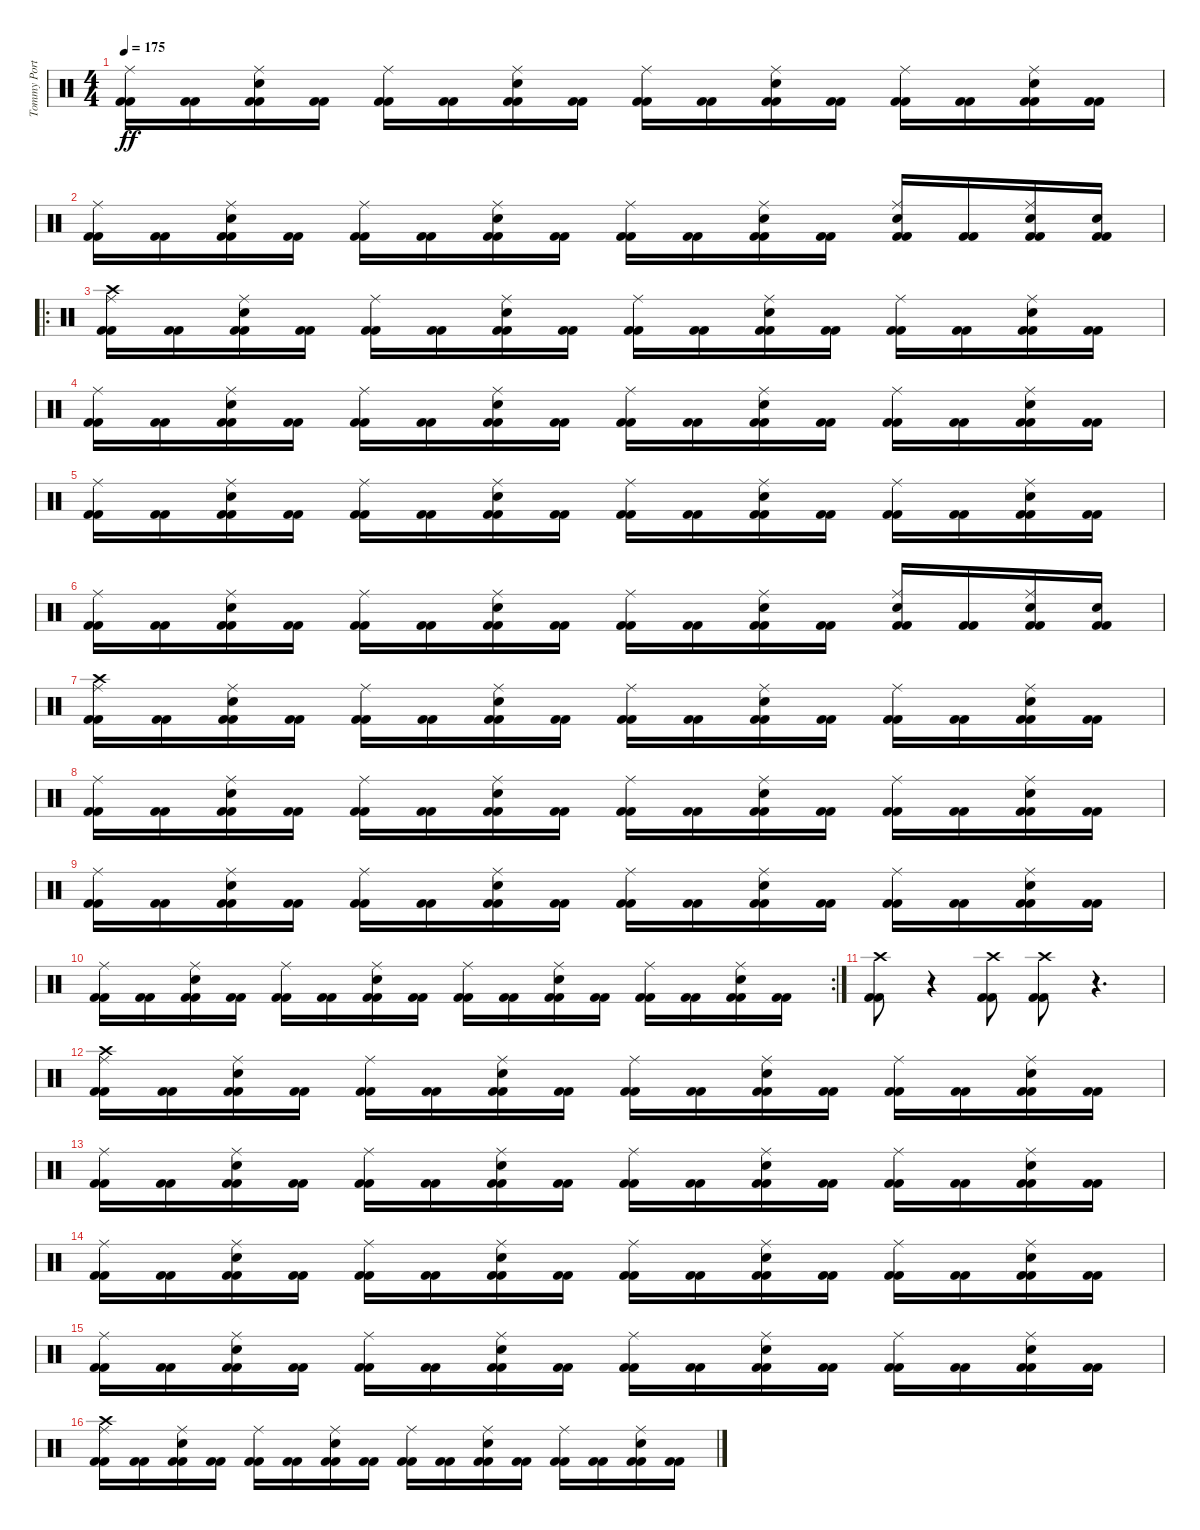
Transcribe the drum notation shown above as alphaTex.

\track ("Tommy Portimo" "Tommy Port") {instrument percussion}
\staff {score}
\articulation defaults
\ts (4 4)
\tempo 175
\clef neutral
\ks c
("Kick (hit) 2" "Kick (hit) 2" "Ride (middle)").16{dy ff} ("Kick (hit) 2" "Kick (hit) 2").16 ("Kick (hit) 2" "Kick (hit) 2" "Ride (middle)" "Electric Snare (hit)").16 ("Kick (hit) 2" "Kick (hit) 2").16 ("Kick (hit) 2" "Kick (hit) 2" "Ride (middle)").16 ("Kick (hit) 2" "Kick (hit) 2").16 ("Kick (hit) 2" "Kick (hit) 2" "Ride (middle)" "Electric Snare (hit)").16 ("Kick (hit) 2" "Kick (hit) 2").16 ("Kick (hit) 2" "Kick (hit) 2" "Ride (middle)").16 ("Kick (hit) 2" "Kick (hit) 2").16 ("Kick (hit) 2" "Kick (hit) 2" "Ride (middle)" "Electric Snare (hit)").16 ("Kick (hit) 2" "Kick (hit) 2").16 ("Kick (hit) 2" "Kick (hit) 2" "Ride (middle)").16 ("Kick (hit) 2" "Kick (hit) 2").16 ("Kick (hit) 2" "Kick (hit) 2" "Ride (middle)" "Electric Snare (hit)").16 ("Kick (hit) 2" "Kick (hit) 2").16 |
("Kick (hit) 2" "Kick (hit) 2" "Ride (middle)").16 ("Kick (hit) 2" "Kick (hit) 2").16 ("Kick (hit) 2" "Kick (hit) 2" "Ride (middle)" "Electric Snare (hit)").16 ("Kick (hit) 2" "Kick (hit) 2").16 ("Kick (hit) 2" "Kick (hit) 2" "Ride (middle)").16 ("Kick (hit) 2" "Kick (hit) 2").16 ("Kick (hit) 2" "Kick (hit) 2" "Ride (middle)" "Electric Snare (hit)").16 ("Kick (hit) 2" "Kick (hit) 2").16 ("Kick (hit) 2" "Kick (hit) 2" "Ride (middle)").16 ("Kick (hit) 2" "Kick (hit) 2").16 ("Kick (hit) 2" "Kick (hit) 2" "Ride (middle)" "Electric Snare (hit)").16 ("Kick (hit) 2" "Kick (hit) 2").16 ("Kick (hit) 2" "Kick (hit) 2" "Ride (middle)" "Electric Snare (hit)").16 ("Kick (hit) 2" "Kick (hit) 2").16 ("Kick (hit) 2" "Kick (hit) 2" "Ride (middle)" "Electric Snare (hit)").16 ("Kick (hit) 2" "Kick (hit) 2" "Electric Snare (hit)").16 |
\ro
("Kick (hit) 2" "Kick (hit) 2" "Ride (middle)" "Crash high (hit)").16 ("Kick (hit) 2" "Kick (hit) 2").16 ("Kick (hit) 2" "Kick (hit) 2" "Ride (middle)" "Electric Snare (hit)").16 ("Kick (hit) 2" "Kick (hit) 2").16 ("Kick (hit) 2" "Kick (hit) 2" "Ride (middle)").16 ("Kick (hit) 2" "Kick (hit) 2").16 ("Kick (hit) 2" "Kick (hit) 2" "Ride (middle)" "Electric Snare (hit)").16 ("Kick (hit) 2" "Kick (hit) 2").16 ("Kick (hit) 2" "Kick (hit) 2" "Ride (middle)").16 ("Kick (hit) 2" "Kick (hit) 2").16 ("Kick (hit) 2" "Kick (hit) 2" "Ride (middle)" "Electric Snare (hit)").16 ("Kick (hit) 2" "Kick (hit) 2").16 ("Kick (hit) 2" "Kick (hit) 2" "Ride (middle)").16 ("Kick (hit) 2" "Kick (hit) 2").16 ("Kick (hit) 2" "Kick (hit) 2" "Ride (middle)" "Electric Snare (hit)").16 ("Kick (hit) 2" "Kick (hit) 2").16 |
("Kick (hit) 2" "Kick (hit) 2" "Ride (middle)").16 ("Kick (hit) 2" "Kick (hit) 2").16 ("Kick (hit) 2" "Kick (hit) 2" "Ride (middle)" "Electric Snare (hit)").16 ("Kick (hit) 2" "Kick (hit) 2").16 ("Kick (hit) 2" "Kick (hit) 2" "Ride (middle)").16 ("Kick (hit) 2" "Kick (hit) 2").16 ("Kick (hit) 2" "Kick (hit) 2" "Ride (middle)" "Electric Snare (hit)").16 ("Kick (hit) 2" "Kick (hit) 2").16 ("Kick (hit) 2" "Kick (hit) 2" "Ride (middle)").16 ("Kick (hit) 2" "Kick (hit) 2").16 ("Kick (hit) 2" "Kick (hit) 2" "Ride (middle)" "Electric Snare (hit)").16 ("Kick (hit) 2" "Kick (hit) 2").16 ("Kick (hit) 2" "Kick (hit) 2" "Ride (middle)").16 ("Kick (hit) 2" "Kick (hit) 2").16 ("Kick (hit) 2" "Kick (hit) 2" "Ride (middle)" "Electric Snare (hit)").16 ("Kick (hit) 2" "Kick (hit) 2").16 |
("Kick (hit) 2" "Kick (hit) 2" "Ride (middle)").16 ("Kick (hit) 2" "Kick (hit) 2").16 ("Kick (hit) 2" "Kick (hit) 2" "Ride (middle)" "Electric Snare (hit)").16 ("Kick (hit) 2" "Kick (hit) 2").16 ("Kick (hit) 2" "Kick (hit) 2" "Ride (middle)").16 ("Kick (hit) 2" "Kick (hit) 2").16 ("Kick (hit) 2" "Kick (hit) 2" "Ride (middle)" "Electric Snare (hit)").16 ("Kick (hit) 2" "Kick (hit) 2").16 ("Kick (hit) 2" "Kick (hit) 2" "Ride (middle)").16 ("Kick (hit) 2" "Kick (hit) 2").16 ("Kick (hit) 2" "Kick (hit) 2" "Ride (middle)" "Electric Snare (hit)").16 ("Kick (hit) 2" "Kick (hit) 2").16 ("Kick (hit) 2" "Kick (hit) 2" "Ride (middle)").16 ("Kick (hit) 2" "Kick (hit) 2").16 ("Kick (hit) 2" "Kick (hit) 2" "Ride (middle)" "Electric Snare (hit)").16 ("Kick (hit) 2" "Kick (hit) 2").16 |
("Kick (hit) 2" "Kick (hit) 2" "Ride (middle)").16 ("Kick (hit) 2" "Kick (hit) 2").16 ("Kick (hit) 2" "Kick (hit) 2" "Ride (middle)" "Electric Snare (hit)").16 ("Kick (hit) 2" "Kick (hit) 2").16 ("Kick (hit) 2" "Kick (hit) 2" "Ride (middle)").16 ("Kick (hit) 2" "Kick (hit) 2").16 ("Kick (hit) 2" "Kick (hit) 2" "Ride (middle)" "Electric Snare (hit)").16 ("Kick (hit) 2" "Kick (hit) 2").16 ("Kick (hit) 2" "Kick (hit) 2" "Ride (middle)").16 ("Kick (hit) 2" "Kick (hit) 2").16 ("Kick (hit) 2" "Kick (hit) 2" "Ride (middle)" "Electric Snare (hit)").16 ("Kick (hit) 2" "Kick (hit) 2").16 ("Kick (hit) 2" "Kick (hit) 2" "Ride (middle)" "Electric Snare (hit)").16 ("Kick (hit) 2" "Kick (hit) 2").16 ("Kick (hit) 2" "Kick (hit) 2" "Ride (middle)" "Electric Snare (hit)").16 ("Kick (hit) 2" "Kick (hit) 2" "Electric Snare (hit)").16 |
("Kick (hit) 2" "Kick (hit) 2" "Ride (middle)" "Crash high (hit)").16 ("Kick (hit) 2" "Kick (hit) 2").16 ("Kick (hit) 2" "Kick (hit) 2" "Ride (middle)" "Electric Snare (hit)").16 ("Kick (hit) 2" "Kick (hit) 2").16 ("Kick (hit) 2" "Kick (hit) 2" "Ride (middle)").16 ("Kick (hit) 2" "Kick (hit) 2").16 ("Kick (hit) 2" "Kick (hit) 2" "Ride (middle)" "Electric Snare (hit)").16 ("Kick (hit) 2" "Kick (hit) 2").16 ("Kick (hit) 2" "Kick (hit) 2" "Ride (middle)").16 ("Kick (hit) 2" "Kick (hit) 2").16 ("Kick (hit) 2" "Kick (hit) 2" "Ride (middle)" "Electric Snare (hit)").16 ("Kick (hit) 2" "Kick (hit) 2").16 ("Kick (hit) 2" "Kick (hit) 2" "Ride (middle)").16 ("Kick (hit) 2" "Kick (hit) 2").16 ("Kick (hit) 2" "Kick (hit) 2" "Ride (middle)" "Electric Snare (hit)").16 ("Kick (hit) 2" "Kick (hit) 2").16 |
("Kick (hit) 2" "Kick (hit) 2" "Ride (middle)").16 ("Kick (hit) 2" "Kick (hit) 2").16 ("Kick (hit) 2" "Kick (hit) 2" "Ride (middle)" "Electric Snare (hit)").16 ("Kick (hit) 2" "Kick (hit) 2").16 ("Kick (hit) 2" "Kick (hit) 2" "Ride (middle)").16 ("Kick (hit) 2" "Kick (hit) 2").16 ("Kick (hit) 2" "Kick (hit) 2" "Ride (middle)" "Electric Snare (hit)").16 ("Kick (hit) 2" "Kick (hit) 2").16 ("Kick (hit) 2" "Kick (hit) 2" "Ride (middle)").16 ("Kick (hit) 2" "Kick (hit) 2").16 ("Kick (hit) 2" "Kick (hit) 2" "Ride (middle)" "Electric Snare (hit)").16 ("Kick (hit) 2" "Kick (hit) 2").16 ("Kick (hit) 2" "Kick (hit) 2" "Ride (middle)").16 ("Kick (hit) 2" "Kick (hit) 2").16 ("Kick (hit) 2" "Kick (hit) 2" "Ride (middle)" "Electric Snare (hit)").16 ("Kick (hit) 2" "Kick (hit) 2").16 |
("Kick (hit) 2" "Kick (hit) 2" "Ride (middle)").16 ("Kick (hit) 2" "Kick (hit) 2").16 ("Kick (hit) 2" "Kick (hit) 2" "Ride (middle)" "Electric Snare (hit)").16 ("Kick (hit) 2" "Kick (hit) 2").16 ("Kick (hit) 2" "Kick (hit) 2" "Ride (middle)").16 ("Kick (hit) 2" "Kick (hit) 2").16 ("Kick (hit) 2" "Kick (hit) 2" "Ride (middle)" "Electric Snare (hit)").16 ("Kick (hit) 2" "Kick (hit) 2").16 ("Kick (hit) 2" "Kick (hit) 2" "Ride (middle)").16 ("Kick (hit) 2" "Kick (hit) 2").16 ("Kick (hit) 2" "Kick (hit) 2" "Ride (middle)" "Electric Snare (hit)").16 ("Kick (hit) 2" "Kick (hit) 2").16 ("Kick (hit) 2" "Kick (hit) 2" "Ride (middle)").16 ("Kick (hit) 2" "Kick (hit) 2").16 ("Kick (hit) 2" "Kick (hit) 2" "Ride (middle)" "Electric Snare (hit)").16 ("Kick (hit) 2" "Kick (hit) 2").16 |
\rc 2
("Kick (hit) 2" "Kick (hit) 2" "Ride (middle)").16 ("Kick (hit) 2" "Kick (hit) 2").16 ("Kick (hit) 2" "Kick (hit) 2" "Ride (middle)" "Electric Snare (hit)").16 ("Kick (hit) 2" "Kick (hit) 2").16 ("Kick (hit) 2" "Kick (hit) 2" "Ride (middle)").16 ("Kick (hit) 2" "Kick (hit) 2").16 ("Kick (hit) 2" "Kick (hit) 2" "Ride (middle)" "Electric Snare (hit)").16 ("Kick (hit) 2" "Kick (hit) 2").16 ("Kick (hit) 2" "Kick (hit) 2" "Ride (middle)").16 ("Kick (hit) 2" "Kick (hit) 2").16 ("Kick (hit) 2" "Kick (hit) 2" "Ride (middle)" "Electric Snare (hit)").16 ("Kick (hit) 2" "Kick (hit) 2").16 ("Kick (hit) 2" "Kick (hit) 2" "Ride (middle)").16 ("Kick (hit) 2" "Kick (hit) 2").16 ("Kick (hit) 2" "Kick (hit) 2" "Ride (middle)" "Electric Snare (hit)").16 ("Kick (hit) 2" "Kick (hit) 2").16 |
("Kick (hit) 2" "Kick (hit) 2" "Crash high (hit)").8 r.4 ("Kick (hit) 2" "Kick (hit) 2" "Crash high (hit)").8 ("Kick (hit) 2" "Kick (hit) 2" "Crash high (hit)").8 r.4{d} |
("Kick (hit) 2" "Kick (hit) 2" "Ride (middle)" "Crash high (hit)").16 ("Kick (hit) 2" "Kick (hit) 2").16 ("Kick (hit) 2" "Kick (hit) 2" "Ride (middle)" "Electric Snare (hit)").16 ("Kick (hit) 2" "Kick (hit) 2").16 ("Kick (hit) 2" "Kick (hit) 2" "Ride (middle)").16 ("Kick (hit) 2" "Kick (hit) 2").16 ("Kick (hit) 2" "Kick (hit) 2" "Ride (middle)" "Electric Snare (hit)").16 ("Kick (hit) 2" "Kick (hit) 2").16 ("Kick (hit) 2" "Kick (hit) 2" "Ride (middle)").16 ("Kick (hit) 2" "Kick (hit) 2").16 ("Kick (hit) 2" "Kick (hit) 2" "Ride (middle)" "Electric Snare (hit)").16 ("Kick (hit) 2" "Kick (hit) 2").16 ("Kick (hit) 2" "Kick (hit) 2" "Ride (middle)").16 ("Kick (hit) 2" "Kick (hit) 2").16 ("Kick (hit) 2" "Kick (hit) 2" "Ride (middle)" "Electric Snare (hit)").16 ("Kick (hit) 2" "Kick (hit) 2").16 |
("Kick (hit) 2" "Kick (hit) 2" "Ride (middle)").16 ("Kick (hit) 2" "Kick (hit) 2").16 ("Kick (hit) 2" "Kick (hit) 2" "Ride (middle)" "Electric Snare (hit)").16 ("Kick (hit) 2" "Kick (hit) 2").16 ("Kick (hit) 2" "Kick (hit) 2" "Ride (middle)").16 ("Kick (hit) 2" "Kick (hit) 2").16 ("Kick (hit) 2" "Kick (hit) 2" "Ride (middle)" "Electric Snare (hit)").16 ("Kick (hit) 2" "Kick (hit) 2").16 ("Kick (hit) 2" "Kick (hit) 2" "Ride (middle)").16 ("Kick (hit) 2" "Kick (hit) 2").16 ("Kick (hit) 2" "Kick (hit) 2" "Ride (middle)" "Electric Snare (hit)").16 ("Kick (hit) 2" "Kick (hit) 2").16 ("Kick (hit) 2" "Kick (hit) 2" "Ride (middle)").16 ("Kick (hit) 2" "Kick (hit) 2").16 ("Kick (hit) 2" "Kick (hit) 2" "Ride (middle)" "Electric Snare (hit)").16 ("Kick (hit) 2" "Kick (hit) 2").16 |
("Kick (hit) 2" "Kick (hit) 2" "Ride (middle)").16 ("Kick (hit) 2" "Kick (hit) 2").16 ("Kick (hit) 2" "Kick (hit) 2" "Ride (middle)" "Electric Snare (hit)").16 ("Kick (hit) 2" "Kick (hit) 2").16 ("Kick (hit) 2" "Kick (hit) 2" "Ride (middle)").16 ("Kick (hit) 2" "Kick (hit) 2").16 ("Kick (hit) 2" "Kick (hit) 2" "Ride (middle)" "Electric Snare (hit)").16 ("Kick (hit) 2" "Kick (hit) 2").16 ("Kick (hit) 2" "Kick (hit) 2" "Ride (middle)").16 ("Kick (hit) 2" "Kick (hit) 2").16 ("Kick (hit) 2" "Kick (hit) 2" "Ride (middle)" "Electric Snare (hit)").16 ("Kick (hit) 2" "Kick (hit) 2").16 ("Kick (hit) 2" "Kick (hit) 2" "Ride (middle)").16 ("Kick (hit) 2" "Kick (hit) 2").16 ("Kick (hit) 2" "Kick (hit) 2" "Ride (middle)" "Electric Snare (hit)").16 ("Kick (hit) 2" "Kick (hit) 2").16 |
("Kick (hit) 2" "Kick (hit) 2" "Ride (middle)").16 ("Kick (hit) 2" "Kick (hit) 2").16 ("Kick (hit) 2" "Kick (hit) 2" "Ride (middle)" "Electric Snare (hit)").16 ("Kick (hit) 2" "Kick (hit) 2").16 ("Kick (hit) 2" "Kick (hit) 2" "Ride (middle)").16 ("Kick (hit) 2" "Kick (hit) 2").16 ("Kick (hit) 2" "Kick (hit) 2" "Ride (middle)" "Electric Snare (hit)").16 ("Kick (hit) 2" "Kick (hit) 2").16 ("Kick (hit) 2" "Kick (hit) 2" "Ride (middle)").16 ("Kick (hit) 2" "Kick (hit) 2").16 ("Kick (hit) 2" "Kick (hit) 2" "Ride (middle)" "Electric Snare (hit)").16 ("Kick (hit) 2" "Kick (hit) 2").16 ("Kick (hit) 2" "Kick (hit) 2" "Ride (middle)").16 ("Kick (hit) 2" "Kick (hit) 2").16 ("Kick (hit) 2" "Kick (hit) 2" "Ride (middle)" "Electric Snare (hit)").16 ("Kick (hit) 2" "Kick (hit) 2").16 |
("Kick (hit) 2" "Kick (hit) 2" "Ride (middle)" "Crash high (hit)").16 ("Kick (hit) 2" "Kick (hit) 2").16 ("Kick (hit) 2" "Kick (hit) 2" "Ride (middle)" "Electric Snare (hit)").16 ("Kick (hit) 2" "Kick (hit) 2").16 ("Kick (hit) 2" "Kick (hit) 2" "Ride (middle)").16 ("Kick (hit) 2" "Kick (hit) 2").16 ("Kick (hit) 2" "Kick (hit) 2" "Ride (middle)" "Electric Snare (hit)").16 ("Kick (hit) 2" "Kick (hit) 2").16 ("Kick (hit) 2" "Kick (hit) 2" "Ride (middle)").16 ("Kick (hit) 2" "Kick (hit) 2").16 ("Kick (hit) 2" "Kick (hit) 2" "Ride (middle)" "Electric Snare (hit)").16 ("Kick (hit) 2" "Kick (hit) 2").16 ("Kick (hit) 2" "Kick (hit) 2" "Ride (middle)").16 ("Kick (hit) 2" "Kick (hit) 2").16 ("Kick (hit) 2" "Kick (hit) 2" "Ride (middle)" "Electric Snare (hit)").16 ("Kick (hit) 2" "Kick (hit) 2").16
